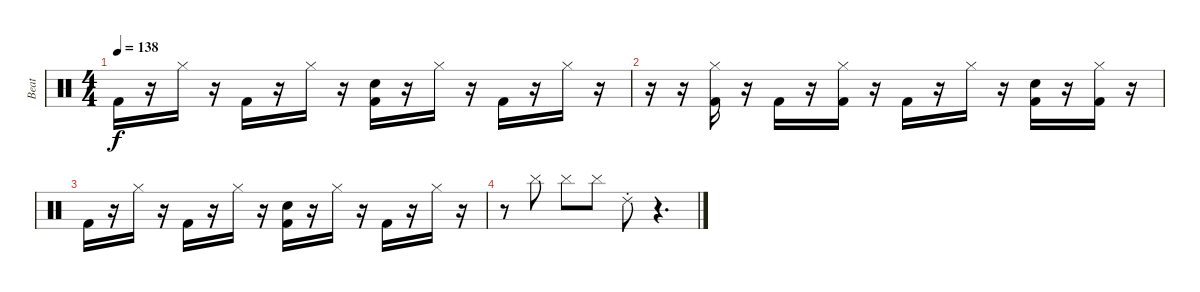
\track ("Beat" "Beat") {instrument percussion}
\staff {score}
\articulation defaults
\ts (4 4)
\tempo 138
\clef neutral
\ks c "Kick (hit) 2".16{dy f}
r.16 "Hi-Hat (closed)".16 r.16 "Kick (hit) 2".16 r.16 "Hi-Hat (closed)".16 r.16 ("Electric Snare (hit)" "Kick (hit) 2").16 r.16 "Hi-Hat (closed)".16 r.16 "Kick (hit) 2".16 r.16 "Hi-Hat (closed)".16 r.16 |
r.16 r.16 ("Hi-Hat (closed)" "Kick (hit) 2").16 r.16 "Kick (hit) 2".16 r.16 ("Hi-Hat (closed)" "Kick (hit) 2").16 r.16 "Kick (hit) 2".16 r.16 "Hi-Hat (closed)".16 r.16 ("Electric Snare (hit)" "Kick (hit) 2").16 r.16 ("Hi-Hat (closed)" "Kick (hit) 2").16 r.16 |
"Kick (hit) 2".16 r.16 "Hi-Hat (closed)".16 r.16 "Kick (hit) 2".16 r.16 "Hi-Hat (closed)".16 r.16 ("Electric Snare (hit)" "Kick (hit) 2").16 r.16 "Hi-Hat (closed)".16 r.16 "Kick (hit) 2".16 r.16 "Hi-Hat (closed)".16 r.16 |
r.8 "Cymbal (hit)".8 "Cymbal (hit)".8 "Cymbal (hit)".8 "Ride (choke) 2".8 r.4{d}
